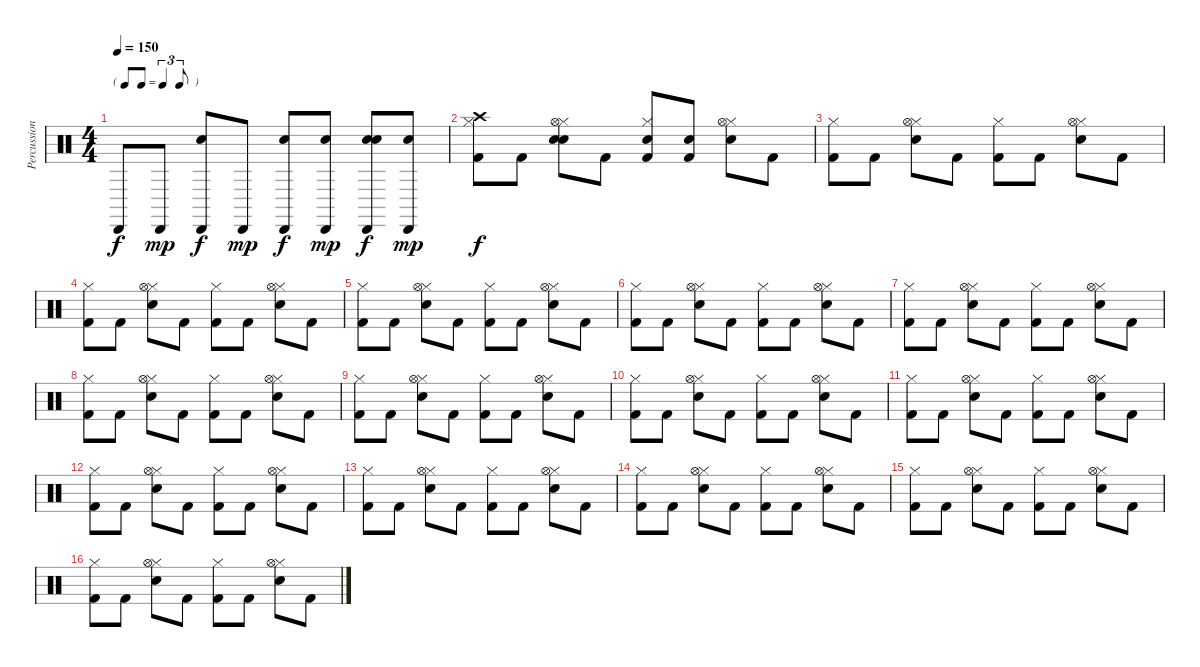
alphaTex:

\track ("Percussion" "Percussion") {instrument percussion}
\staff {score}
\articulation defaults
\ts (4 4)
\tf triplet8th
\tempo 150
\clef neutral
\ks c "Cabasa (hit)".8{dy f} "Cabasa (hit)".8{dy mp}
("Cabasa (hit)" "Hand Clap (hit)").8{dy f} "Cabasa (hit)".8{dy mp} ("Cabasa (hit)" "Snare (hit) 2").8{dy f} ("Cabasa (hit)" "Snare (hit) 2").8{dy mp} ("Cabasa (hit)" "Snare (hit) 2" "Hand Clap (hit)").8{dy f} ("Cabasa (hit)" "Snare (hit) 2").8{dy mp} |
("Hi-Hat (closed)" "Kick (hit) 2" "Crash high (hit)").8{dy f} "Kick (hit) 2".8 ("Hi-Hat (closed)" "Snare (hit) 2" "Snare (hit)" "Hi-Hat (open)").8 "Kick (hit) 2".8 ("Hi-Hat (closed)" "Kick (hit) 2" "Snare (hit)").8 ("Kick (hit) 2" "Snare (hit)").8 ("Hi-Hat (closed)" "Snare (hit) 2" "Hi-Hat (open)").8 "Kick (hit) 2".8 |
("Hi-Hat (closed)" "Kick (hit) 2").8 "Kick (hit) 2".8 ("Hi-Hat (closed)" "Snare (hit) 2" "Hi-Hat (open)").8 "Kick (hit) 2".8 ("Hi-Hat (closed)" "Kick (hit) 2").8 "Kick (hit) 2".8 ("Hi-Hat (closed)" "Snare (hit) 2" "Hi-Hat (open)").8 "Kick (hit) 2".8 |
("Hi-Hat (closed)" "Kick (hit) 2").8 "Kick (hit) 2".8 ("Hi-Hat (closed)" "Snare (hit) 2" "Hi-Hat (open)").8 "Kick (hit) 2".8 ("Hi-Hat (closed)" "Kick (hit) 2").8 "Kick (hit) 2".8 ("Hi-Hat (closed)" "Snare (hit) 2" "Hi-Hat (open)").8 "Kick (hit) 2".8 |
("Hi-Hat (closed)" "Kick (hit) 2").8 "Kick (hit) 2".8 ("Hi-Hat (closed)" "Snare (hit) 2" "Hi-Hat (open)").8 "Kick (hit) 2".8 ("Hi-Hat (closed)" "Kick (hit) 2").8 "Kick (hit) 2".8 ("Hi-Hat (closed)" "Snare (hit) 2" "Hi-Hat (open)").8 "Kick (hit) 2".8 |
("Hi-Hat (closed)" "Kick (hit) 2").8 "Kick (hit) 2".8 ("Hi-Hat (closed)" "Snare (hit) 2" "Hi-Hat (open)").8 "Kick (hit) 2".8 ("Hi-Hat (closed)" "Kick (hit) 2").8 "Kick (hit) 2".8 ("Hi-Hat (closed)" "Snare (hit) 2" "Hi-Hat (open)").8 "Kick (hit) 2".8 |
("Hi-Hat (closed)" "Kick (hit) 2").8 "Kick (hit) 2".8 ("Hi-Hat (closed)" "Snare (hit) 2" "Hi-Hat (open)").8 "Kick (hit) 2".8 ("Hi-Hat (closed)" "Kick (hit) 2").8 "Kick (hit) 2".8 ("Hi-Hat (closed)" "Snare (hit) 2" "Hi-Hat (open)").8 "Kick (hit) 2".8 |
("Hi-Hat (closed)" "Kick (hit) 2").8 "Kick (hit) 2".8 ("Hi-Hat (closed)" "Snare (hit) 2" "Hi-Hat (open)").8 "Kick (hit) 2".8 ("Hi-Hat (closed)" "Kick (hit) 2").8 "Kick (hit) 2".8 ("Hi-Hat (closed)" "Snare (hit) 2" "Hi-Hat (open)").8 "Kick (hit) 2".8 |
("Hi-Hat (closed)" "Kick (hit) 2").8 "Kick (hit) 2".8 ("Hi-Hat (closed)" "Snare (hit) 2" "Hi-Hat (open)").8 "Kick (hit) 2".8 ("Hi-Hat (closed)" "Kick (hit) 2").8 "Kick (hit) 2".8 ("Hi-Hat (closed)" "Snare (hit) 2" "Hi-Hat (open)").8 "Kick (hit) 2".8 |
("Hi-Hat (closed)" "Kick (hit) 2").8 "Kick (hit) 2".8 ("Hi-Hat (closed)" "Snare (hit) 2" "Hi-Hat (open)").8 "Kick (hit) 2".8 ("Hi-Hat (closed)" "Kick (hit) 2").8 "Kick (hit) 2".8 ("Hi-Hat (closed)" "Snare (hit) 2" "Hi-Hat (open)").8 "Kick (hit) 2".8 |
("Hi-Hat (closed)" "Kick (hit) 2").8 "Kick (hit) 2".8 ("Hi-Hat (closed)" "Snare (hit) 2" "Hi-Hat (open)").8 "Kick (hit) 2".8 ("Hi-Hat (closed)" "Kick (hit) 2").8 "Kick (hit) 2".8 ("Hi-Hat (closed)" "Snare (hit) 2" "Hi-Hat (open)").8 "Kick (hit) 2".8 |
("Hi-Hat (closed)" "Kick (hit) 2").8 "Kick (hit) 2".8 ("Hi-Hat (closed)" "Snare (hit) 2" "Hi-Hat (open)").8 "Kick (hit) 2".8 ("Hi-Hat (closed)" "Kick (hit) 2").8 "Kick (hit) 2".8 ("Hi-Hat (closed)" "Snare (hit) 2" "Hi-Hat (open)").8 "Kick (hit) 2".8 |
("Hi-Hat (closed)" "Kick (hit) 2").8 "Kick (hit) 2".8 ("Hi-Hat (closed)" "Snare (hit) 2" "Hi-Hat (open)").8 "Kick (hit) 2".8 ("Hi-Hat (closed)" "Kick (hit) 2").8 "Kick (hit) 2".8 ("Hi-Hat (closed)" "Snare (hit) 2" "Hi-Hat (open)").8 "Kick (hit) 2".8 |
("Hi-Hat (closed)" "Kick (hit) 2").8 "Kick (hit) 2".8 ("Hi-Hat (closed)" "Snare (hit) 2" "Hi-Hat (open)").8 "Kick (hit) 2".8 ("Hi-Hat (closed)" "Kick (hit) 2").8 "Kick (hit) 2".8 ("Hi-Hat (closed)" "Snare (hit) 2" "Hi-Hat (open)").8 "Kick (hit) 2".8 |
("Hi-Hat (closed)" "Kick (hit) 2").8 "Kick (hit) 2".8 ("Hi-Hat (closed)" "Snare (hit) 2" "Hi-Hat (open)").8 "Kick (hit) 2".8 ("Hi-Hat (closed)" "Kick (hit) 2").8 "Kick (hit) 2".8 ("Hi-Hat (closed)" "Snare (hit) 2" "Hi-Hat (open)").8 "Kick (hit) 2".8 |
("Hi-Hat (closed)" "Kick (hit) 2").8 "Kick (hit) 2".8 ("Hi-Hat (closed)" "Snare (hit) 2" "Hi-Hat (open)").8 "Kick (hit) 2".8 ("Hi-Hat (closed)" "Kick (hit) 2").8 "Kick (hit) 2".8 ("Hi-Hat (closed)" "Snare (hit) 2" "Hi-Hat (open)").8 "Kick (hit) 2".8
